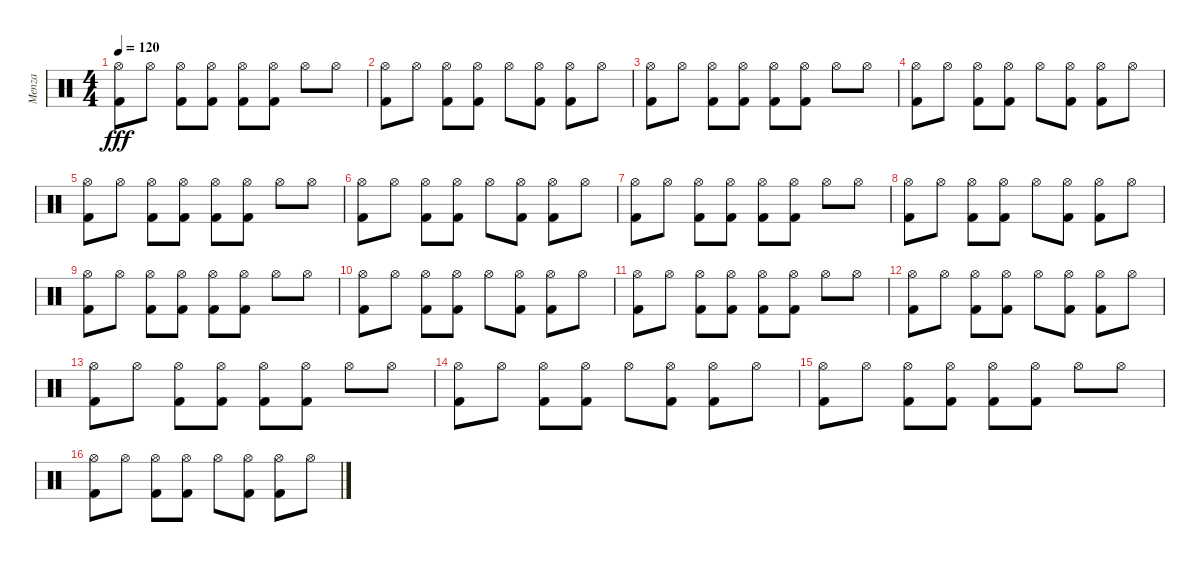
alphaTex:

\track ("Menza" "Menza") {instrument percussion}
\staff {score}
\articulation defaults
\ts (4 4)
\tempo 120
\clef neutral
\ks c
("Hi-Hat (open)" "Kick (hit) 2").8{dy fff} "Hi-Hat (open)".8 ("Hi-Hat (open)" "Kick (hit) 2").8 ("Hi-Hat (open)" "Kick (hit) 2").8 ("Hi-Hat (open)" "Kick (hit) 2").8 ("Hi-Hat (open)" "Kick (hit) 2").8 "Hi-Hat (open)".8 "Hi-Hat (open)".8 |
("Hi-Hat (open)" "Kick (hit) 2").8 "Hi-Hat (open)".8 ("Hi-Hat (open)" "Kick (hit) 2").8 ("Hi-Hat (open)" "Kick (hit) 2").8 "Hi-Hat (open)".8 ("Hi-Hat (open)" "Kick (hit) 2").8 ("Hi-Hat (open)" "Kick (hit) 2").8 "Hi-Hat (open)".8 |
("Hi-Hat (open)" "Kick (hit) 2").8 "Hi-Hat (open)".8 ("Hi-Hat (open)" "Kick (hit) 2").8 ("Hi-Hat (open)" "Kick (hit) 2").8 ("Hi-Hat (open)" "Kick (hit) 2").8 ("Hi-Hat (open)" "Kick (hit) 2").8 "Hi-Hat (open)".8 "Hi-Hat (open)".8 |
("Hi-Hat (open)" "Kick (hit) 2").8 "Hi-Hat (open)".8 ("Hi-Hat (open)" "Kick (hit) 2").8 ("Hi-Hat (open)" "Kick (hit) 2").8 "Hi-Hat (open)".8 ("Hi-Hat (open)" "Kick (hit) 2").8 ("Hi-Hat (open)" "Kick (hit) 2").8 "Hi-Hat (open)".8 |
("Hi-Hat (open)" "Kick (hit) 2").8 "Hi-Hat (open)".8 ("Hi-Hat (open)" "Kick (hit) 2").8 ("Hi-Hat (open)" "Kick (hit) 2").8 ("Hi-Hat (open)" "Kick (hit) 2").8 ("Hi-Hat (open)" "Kick (hit) 2").8 "Hi-Hat (open)".8 "Hi-Hat (open)".8 |
("Hi-Hat (open)" "Kick (hit) 2").8 "Hi-Hat (open)".8 ("Hi-Hat (open)" "Kick (hit) 2").8 ("Hi-Hat (open)" "Kick (hit) 2").8 "Hi-Hat (open)".8 ("Hi-Hat (open)" "Kick (hit) 2").8 ("Hi-Hat (open)" "Kick (hit) 2").8 "Hi-Hat (open)".8 |
("Hi-Hat (open)" "Kick (hit) 2").8 "Hi-Hat (open)".8 ("Hi-Hat (open)" "Kick (hit) 2").8 ("Hi-Hat (open)" "Kick (hit) 2").8 ("Hi-Hat (open)" "Kick (hit) 2").8 ("Hi-Hat (open)" "Kick (hit) 2").8 "Hi-Hat (open)".8 "Hi-Hat (open)".8 |
("Hi-Hat (open)" "Kick (hit) 2").8 "Hi-Hat (open)".8 ("Hi-Hat (open)" "Kick (hit) 2").8 ("Hi-Hat (open)" "Kick (hit) 2").8 "Hi-Hat (open)".8 ("Hi-Hat (open)" "Kick (hit) 2").8 ("Hi-Hat (open)" "Kick (hit) 2").8 "Hi-Hat (open)".8 |
("Hi-Hat (open)" "Kick (hit) 2").8 "Hi-Hat (open)".8 ("Hi-Hat (open)" "Kick (hit) 2").8 ("Hi-Hat (open)" "Kick (hit) 2").8 ("Hi-Hat (open)" "Kick (hit) 2").8 ("Hi-Hat (open)" "Kick (hit) 2").8 "Hi-Hat (open)".8 "Hi-Hat (open)".8 |
("Hi-Hat (open)" "Kick (hit) 2").8 "Hi-Hat (open)".8 ("Hi-Hat (open)" "Kick (hit) 2").8 ("Hi-Hat (open)" "Kick (hit) 2").8 "Hi-Hat (open)".8 ("Hi-Hat (open)" "Kick (hit) 2").8 ("Hi-Hat (open)" "Kick (hit) 2").8 "Hi-Hat (open)".8 |
("Hi-Hat (open)" "Kick (hit) 2").8 "Hi-Hat (open)".8 ("Hi-Hat (open)" "Kick (hit) 2").8 ("Hi-Hat (open)" "Kick (hit) 2").8 ("Hi-Hat (open)" "Kick (hit) 2").8 ("Hi-Hat (open)" "Kick (hit) 2").8 "Hi-Hat (open)".8 "Hi-Hat (open)".8 |
("Hi-Hat (open)" "Kick (hit) 2").8 "Hi-Hat (open)".8 ("Hi-Hat (open)" "Kick (hit) 2").8 ("Hi-Hat (open)" "Kick (hit) 2").8 "Hi-Hat (open)".8 ("Hi-Hat (open)" "Kick (hit) 2").8 ("Hi-Hat (open)" "Kick (hit) 2").8 "Hi-Hat (open)".8 |
("Hi-Hat (open)" "Kick (hit) 2").8 "Hi-Hat (open)".8 ("Hi-Hat (open)" "Kick (hit) 2").8 ("Hi-Hat (open)" "Kick (hit) 2").8 ("Hi-Hat (open)" "Kick (hit) 2").8 ("Hi-Hat (open)" "Kick (hit) 2").8 "Hi-Hat (open)".8 "Hi-Hat (open)".8 |
("Hi-Hat (open)" "Kick (hit) 2").8 "Hi-Hat (open)".8 ("Hi-Hat (open)" "Kick (hit) 2").8 ("Hi-Hat (open)" "Kick (hit) 2").8 "Hi-Hat (open)".8 ("Hi-Hat (open)" "Kick (hit) 2").8 ("Hi-Hat (open)" "Kick (hit) 2").8 "Hi-Hat (open)".8 |
("Hi-Hat (open)" "Kick (hit) 2").8 "Hi-Hat (open)".8 ("Hi-Hat (open)" "Kick (hit) 2").8 ("Hi-Hat (open)" "Kick (hit) 2").8 ("Hi-Hat (open)" "Kick (hit) 2").8 ("Hi-Hat (open)" "Kick (hit) 2").8 "Hi-Hat (open)".8 "Hi-Hat (open)".8 |
("Hi-Hat (open)" "Kick (hit) 2").8 "Hi-Hat (open)".8 ("Hi-Hat (open)" "Kick (hit) 2").8 ("Hi-Hat (open)" "Kick (hit) 2").8 "Hi-Hat (open)".8 ("Hi-Hat (open)" "Kick (hit) 2").8 ("Hi-Hat (open)" "Kick (hit) 2").8 "Hi-Hat (open)".8
